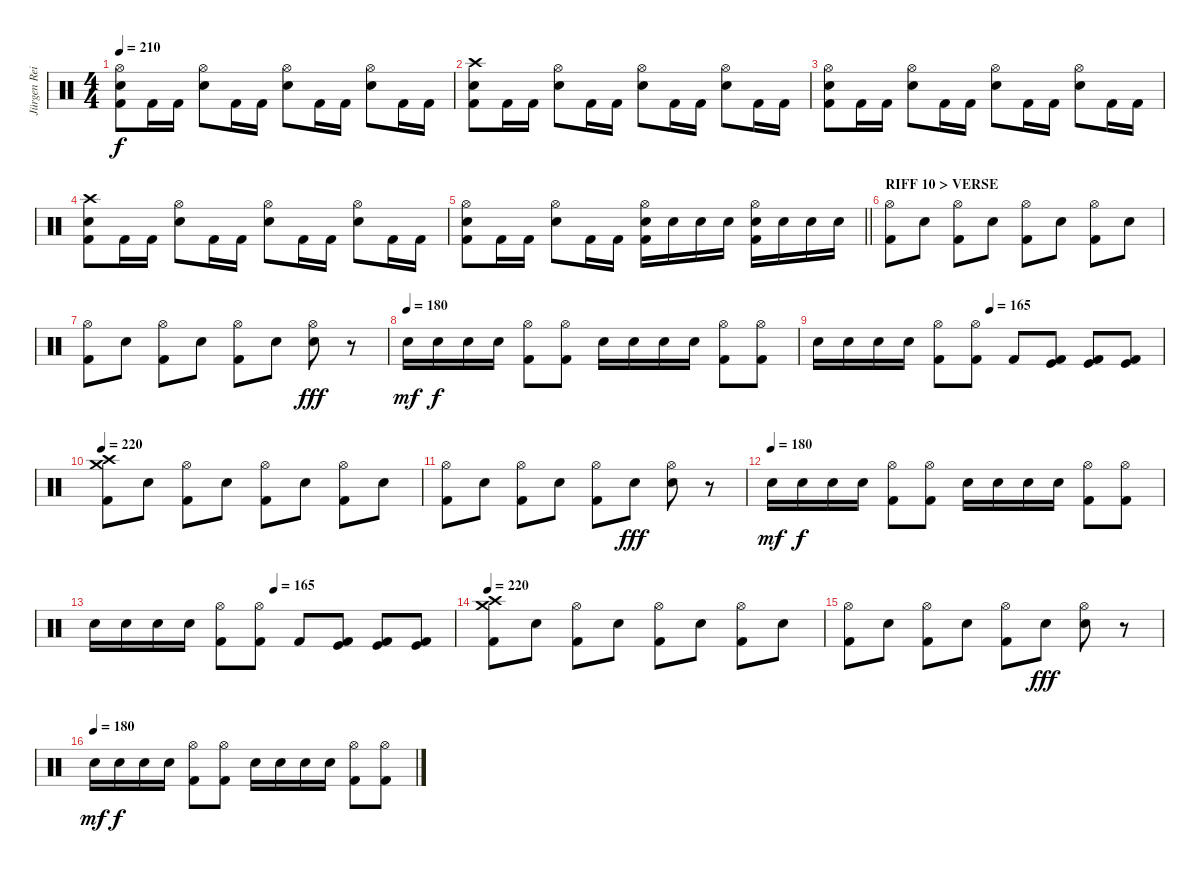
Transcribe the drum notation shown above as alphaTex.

\track ("Jürgen Reil" "Jürgen Rei") {instrument percussion}
\staff {score}
\articulation defaults
\ts (4 4)
\tempo 210
\clef neutral
\ks c
("Hi-Hat (open)" "Electric Snare (hit)" "Kick (hit) 2").8{dy f} "Kick (hit) 2".16 "Kick (hit) 2".16 ("Hi-Hat (open)" "Electric Snare (hit)").8 "Kick (hit) 2".16 "Kick (hit) 2".16 ("Hi-Hat (open)" "Electric Snare (hit)").8 "Kick (hit) 2".16 "Kick (hit) 2".16 ("Hi-Hat (open)" "Electric Snare (hit)").8 "Kick (hit) 2".16 "Kick (hit) 2".16 |
("Crash high (hit)" "Electric Snare (hit)" "Kick (hit) 2").8 "Kick (hit) 2".16 "Kick (hit) 2".16 ("Hi-Hat (open)" "Electric Snare (hit)").8 "Kick (hit) 2".16 "Kick (hit) 2".16 ("Hi-Hat (open)" "Electric Snare (hit)").8 "Kick (hit) 2".16 "Kick (hit) 2".16 ("Hi-Hat (open)" "Electric Snare (hit)").8 "Kick (hit) 2".16 "Kick (hit) 2".16 |
("Hi-Hat (open)" "Electric Snare (hit)" "Kick (hit) 2").8 "Kick (hit) 2".16 "Kick (hit) 2".16 ("Hi-Hat (open)" "Electric Snare (hit)").8 "Kick (hit) 2".16 "Kick (hit) 2".16 ("Hi-Hat (open)" "Electric Snare (hit)").8 "Kick (hit) 2".16 "Kick (hit) 2".16 ("Hi-Hat (open)" "Electric Snare (hit)").8 "Kick (hit) 2".16 "Kick (hit) 2".16 |
("Crash high (hit)" "Electric Snare (hit)" "Kick (hit) 2").8 "Kick (hit) 2".16 "Kick (hit) 2".16 ("Hi-Hat (open)" "Electric Snare (hit)").8 "Kick (hit) 2".16 "Kick (hit) 2".16 ("Hi-Hat (open)" "Electric Snare (hit)").8 "Kick (hit) 2".16 "Kick (hit) 2".16 ("Hi-Hat (open)" "Electric Snare (hit)").8 "Kick (hit) 2".16 "Kick (hit) 2".16 |
\barLineRight lightlight
("Hi-Hat (open)" "Electric Snare (hit)" "Kick (hit) 2").8 "Kick (hit) 2".16 "Kick (hit) 2".16 ("Hi-Hat (open)" "Electric Snare (hit)").8 "Kick (hit) 2".16 "Kick (hit) 2".16 ("Hi-Hat (open)" "Electric Snare (hit)" "Kick (hit) 2").16 "Electric Snare (hit)".16 "Electric Snare (hit)".16 "Electric Snare (hit)".16 ("Hi-Hat (open)" "Electric Snare (hit)" "Kick (hit) 2").16 "Electric Snare (hit)".16 "Electric Snare (hit)".16 "Electric Snare (hit)".16 |
\section ("" "RIFF 10 > VERSE")
("Hi-Hat (open)" "Kick (hit) 2").8 "Electric Snare (hit)".8 ("Hi-Hat (open)" "Kick (hit) 2").8 "Electric Snare (hit)".8 ("Hi-Hat (open)" "Kick (hit) 2").8 "Electric Snare (hit)".8 ("Hi-Hat (open)" "Kick (hit) 2").8 "Electric Snare (hit)".8 |
("Hi-Hat (open)" "Kick (hit) 2").8 "Electric Snare (hit)".8 ("Hi-Hat (open)" "Kick (hit) 2").8 "Electric Snare (hit)".8 ("Hi-Hat (open)" "Kick (hit) 2").8 "Electric Snare (hit)".8 ("Hi-Hat (open)" "Electric Snare (hit)").8{dy fff} r.8 |
\tempo (180)
"Electric Snare (hit)".16{dy mf} "Electric Snare (hit)".16{dy f} "Electric Snare (hit)".16 "Electric Snare (hit)".16 ("Hi-Hat (open)" "Kick (hit) 2").8 ("Hi-Hat (open)" "Kick (hit) 2").8 "Electric Snare (hit)".16 "Electric Snare (hit)".16 "Electric Snare (hit)".16 "Electric Snare (hit)".16 ("Hi-Hat (open)" "Kick (hit) 2").8 ("Hi-Hat (open)" "Kick (hit) 2").8 |
\tempo (165 0.5)
"Electric Snare (hit)".16 "Electric Snare (hit)".16 "Electric Snare (hit)".16 "Electric Snare (hit)".16 ("Hi-Hat (open)" "Kick (hit) 2").8 ("Hi-Hat (open)" "Kick (hit) 2").8 "Kick (hit) 2".8 ("Kick (hit)" "Kick (hit) 2").8 ("Kick (hit)" "Kick (hit) 2").8 ("Kick (hit)" "Kick (hit) 2").8 |
\tempo 220
("Crash high (hit)" "Crash medium (hit)" "Kick (hit) 2").8 "Electric Snare (hit)".8 ("Hi-Hat (open)" "Kick (hit) 2").8 "Electric Snare (hit)".8 ("Hi-Hat (open)" "Kick (hit) 2").8 "Electric Snare (hit)".8 ("Hi-Hat (open)" "Kick (hit) 2").8 "Electric Snare (hit)".8 |
("Hi-Hat (open)" "Kick (hit) 2").8 "Electric Snare (hit)".8 ("Hi-Hat (open)" "Kick (hit) 2").8 "Electric Snare (hit)".8 ("Hi-Hat (open)" "Kick (hit) 2").8 "Electric Snare (hit)".8{dy fff} ("Hi-Hat (open)" "Electric Snare (hit)").8 r.8 |
\tempo (180)
"Electric Snare (hit)".16{dy mf} "Electric Snare (hit)".16{dy f} "Electric Snare (hit)".16 "Electric Snare (hit)".16 ("Hi-Hat (open)" "Kick (hit) 2").8 ("Hi-Hat (open)" "Kick (hit) 2").8 "Electric Snare (hit)".16 "Electric Snare (hit)".16 "Electric Snare (hit)".16 "Electric Snare (hit)".16 ("Hi-Hat (open)" "Kick (hit) 2").8 ("Hi-Hat (open)" "Kick (hit) 2").8 |
\tempo (165 0.5)
"Electric Snare (hit)".16 "Electric Snare (hit)".16 "Electric Snare (hit)".16 "Electric Snare (hit)".16 ("Hi-Hat (open)" "Kick (hit) 2").8 ("Hi-Hat (open)" "Kick (hit) 2").8 "Kick (hit) 2".8 ("Kick (hit)" "Kick (hit) 2").8 ("Kick (hit)" "Kick (hit) 2").8 ("Kick (hit)" "Kick (hit) 2").8 |
\tempo 220
("Crash high (hit)" "Crash medium (hit)" "Kick (hit) 2").8 "Electric Snare (hit)".8 ("Hi-Hat (open)" "Kick (hit) 2").8 "Electric Snare (hit)".8 ("Hi-Hat (open)" "Kick (hit) 2").8 "Electric Snare (hit)".8 ("Hi-Hat (open)" "Kick (hit) 2").8 "Electric Snare (hit)".8 |
("Hi-Hat (open)" "Kick (hit) 2").8 "Electric Snare (hit)".8 ("Hi-Hat (open)" "Kick (hit) 2").8 "Electric Snare (hit)".8 ("Hi-Hat (open)" "Kick (hit) 2").8 "Electric Snare (hit)".8{dy fff} ("Hi-Hat (open)" "Electric Snare (hit)").8 r.8 |
\tempo (180)
"Electric Snare (hit)".16{dy mf} "Electric Snare (hit)".16{dy f} "Electric Snare (hit)".16 "Electric Snare (hit)".16 ("Hi-Hat (open)" "Kick (hit) 2").8 ("Hi-Hat (open)" "Kick (hit) 2").8 "Electric Snare (hit)".16 "Electric Snare (hit)".16 "Electric Snare (hit)".16 "Electric Snare (hit)".16 ("Hi-Hat (open)" "Kick (hit) 2").8 ("Hi-Hat (open)" "Kick (hit) 2").8
